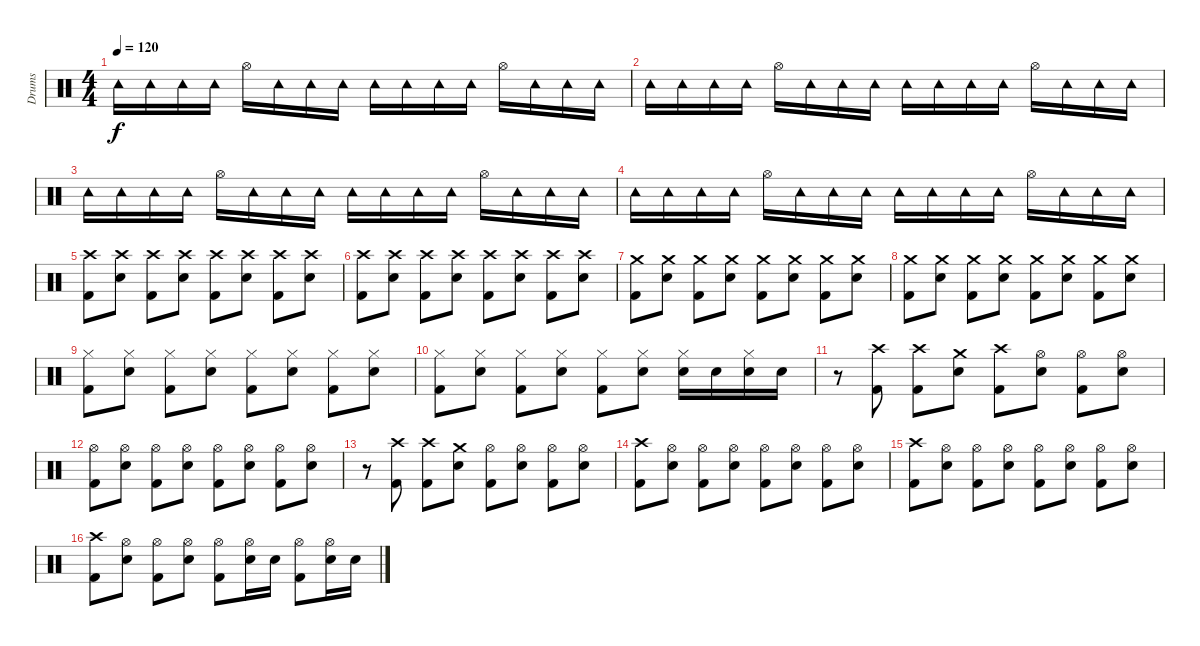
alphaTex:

\track ("Drums" "Drums") {instrument percussion}
\staff {score}
\articulation defaults
\ts (4 4)
\tempo 120
\clef neutral
\ks c "Tambourine (hit)".16{dy f} "Tambourine (hit)".16 "Tambourine (hit)".16 "Tambourine (hit)".16 "Hi-Hat (open)".16 "Tambourine (hit)".16 "Tambourine (hit)".16 "Tambourine (hit)".16 "Tambourine (hit)".16 "Tambourine (hit)".16 "Tambourine (hit)".16 "Tambourine (hit)".16 "Hi-Hat (open)".16 "Tambourine (hit)".16 "Tambourine (hit)".16 "Tambourine (hit)".16
|
"Tambourine (hit)".16 "Tambourine (hit)".16 "Tambourine (hit)".16 "Tambourine (hit)".16 "Hi-Hat (open)".16 "Tambourine (hit)".16 "Tambourine (hit)".16 "Tambourine (hit)".16 "Tambourine (hit)".16 "Tambourine (hit)".16 "Tambourine (hit)".16 "Tambourine (hit)".16 "Hi-Hat (open)".16 "Tambourine (hit)".16 "Tambourine (hit)".16 "Tambourine (hit)".16 |
"Tambourine (hit)".16{volume 2} "Tambourine (hit)".16 "Tambourine (hit)".16 "Tambourine (hit)".16 "Hi-Hat (open)".16 "Tambourine (hit)".16 "Tambourine (hit)".16 "Tambourine (hit)".16 "Tambourine (hit)".16 "Tambourine (hit)".16 "Tambourine (hit)".16 "Tambourine (hit)".16 "Hi-Hat (open)".16 "Tambourine (hit)".16 "Tambourine (hit)".16 "Tambourine (hit)".16 |
"Tambourine (hit)".16 "Tambourine (hit)".16 "Tambourine (hit)".16 "Tambourine (hit)".16 "Hi-Hat (open)".16 "Tambourine (hit)".16 "Tambourine (hit)".16 "Tambourine (hit)".16 "Tambourine (hit)".16 "Tambourine (hit)".16 "Tambourine (hit)".16 "Tambourine (hit)".16 "Hi-Hat (open)".16 "Tambourine (hit)".16 "Tambourine (hit)".16 "Tambourine (hit)".16 |
("Crash high (hit)" "Kick (hit) 2").8{volume 16} ("Crash high (hit)" "Snare (hit) 2").8 ("Crash high (hit)" "Kick (hit) 2").8 ("Crash high (hit)" "Snare (hit) 2").8 ("Crash high (hit)" "Kick (hit) 2").8 ("Crash high (hit)" "Snare (hit) 2").8 ("Crash high (hit)" "Kick (hit) 2").8 ("Crash high (hit)" "Snare (hit) 2").8 |
("Crash high (hit)" "Kick (hit) 2").8{volume 16} ("Crash high (hit)" "Snare (hit) 2").8 ("Crash high (hit)" "Kick (hit) 2").8 ("Crash high (hit)" "Snare (hit) 2").8 ("Crash high (hit)" "Kick (hit) 2").8 ("Crash high (hit)" "Snare (hit) 2").8 ("Crash high (hit)" "Kick (hit) 2").8 ("Crash high (hit)" "Snare (hit) 2").8 |
("Crash medium (hit)" "Kick (hit) 2").8{volume 16} ("Crash medium (hit)" "Snare (hit) 2").8 ("Crash medium (hit)" "Kick (hit) 2").8 ("Crash medium (hit)" "Snare (hit) 2").8 ("Crash medium (hit)" "Kick (hit) 2").8 ("Crash medium (hit)" "Snare (hit) 2").8 ("Crash medium (hit)" "Kick (hit) 2").8 ("Crash medium (hit)" "Snare (hit) 2").8 |
("Crash medium (hit)" "Kick (hit) 2").8{volume 16} ("Crash medium (hit)" "Snare (hit) 2").8 ("Crash medium (hit)" "Kick (hit) 2").8 ("Crash medium (hit)" "Snare (hit) 2").8 ("Crash medium (hit)" "Kick (hit) 2").8 ("Crash medium (hit)" "Snare (hit) 2").8 ("Crash medium (hit)" "Kick (hit) 2").8 ("Crash medium (hit)" "Snare (hit) 2").8 |
("Hi-Hat (closed)" "Kick (hit) 2").8{volume 16} ("Hi-Hat (closed)" "Snare (hit) 2").8 ("Hi-Hat (closed)" "Kick (hit) 2").8 ("Hi-Hat (closed)" "Snare (hit) 2").8 ("Hi-Hat (closed)" "Kick (hit) 2").8 ("Hi-Hat (closed)" "Snare (hit) 2").8 ("Hi-Hat (closed)" "Kick (hit) 2").8 ("Hi-Hat (closed)" "Snare (hit) 2").8 |
("Hi-Hat (closed)" "Kick (hit) 2").8{volume 16} ("Hi-Hat (closed)" "Snare (hit) 2").8 ("Hi-Hat (closed)" "Kick (hit) 2").8 ("Hi-Hat (closed)" "Snare (hit) 2").8 ("Hi-Hat (closed)" "Kick (hit) 2").8 ("Hi-Hat (closed)" "Snare (hit) 2").8 ("Hi-Hat (closed)" "Snare (hit) 2").16 "Snare (hit) 2".16 ("Hi-Hat (closed)" "Snare (hit) 2").16 "Snare (hit) 2".16 |
r.8 ("Crash high (hit)" "Kick (hit) 2").8 ("Crash high (hit)" "Kick (hit) 2").8 ("Crash medium (hit)" "Snare (hit) 2").8 ("Crash high (hit)" "Kick (hit) 2").8 ("Hi-Hat (open)" "Snare (hit) 2").8 ("Hi-Hat (open)" "Kick (hit) 2").8 ("Hi-Hat (open)" "Snare (hit) 2").8 |
("Hi-Hat (open)" "Kick (hit) 2").8{volume 16} ("Hi-Hat (open)" "Snare (hit) 2").8 ("Hi-Hat (open)" "Kick (hit) 2").8 ("Hi-Hat (open)" "Snare (hit) 2").8 ("Hi-Hat (open)" "Kick (hit) 2").8 ("Hi-Hat (open)" "Snare (hit) 2").8 ("Hi-Hat (open)" "Kick (hit) 2").8 ("Hi-Hat (open)" "Snare (hit) 2").8 |
r.8 ("Crash high (hit)" "Kick (hit) 2").8 ("Crash high (hit)" "Kick (hit) 2").8 ("Crash medium (hit)" "Snare (hit) 2").8 ("Hi-Hat (open)" "Kick (hit) 2").8 ("Hi-Hat (open)" "Snare (hit) 2").8 ("Hi-Hat (open)" "Kick (hit) 2").8 ("Hi-Hat (open)" "Snare (hit) 2").8 |
("Crash high (hit)" "Kick (hit) 2").8{volume 16} ("Hi-Hat (open)" "Snare (hit) 2").8 ("Hi-Hat (open)" "Kick (hit) 2").8 ("Hi-Hat (open)" "Snare (hit) 2").8 ("Hi-Hat (open)" "Kick (hit) 2").8 ("Hi-Hat (open)" "Snare (hit) 2").8 ("Hi-Hat (open)" "Kick (hit) 2").8 ("Hi-Hat (open)" "Snare (hit) 2").8 |
("Crash high (hit)" "Kick (hit) 2").8{volume 16} ("Hi-Hat (open)" "Snare (hit) 2").8 ("Hi-Hat (open)" "Kick (hit) 2").8 ("Hi-Hat (open)" "Snare (hit) 2").8 ("Hi-Hat (open)" "Kick (hit) 2").8 ("Hi-Hat (open)" "Snare (hit) 2").8 ("Hi-Hat (open)" "Kick (hit) 2").8 ("Hi-Hat (open)" "Snare (hit) 2").8 |
("Crash high (hit)" "Kick (hit) 2").8{volume 16} ("Hi-Hat (open)" "Snare (hit) 2").8 ("Hi-Hat (open)" "Kick (hit) 2").8 ("Hi-Hat (open)" "Snare (hit) 2").8 ("Hi-Hat (open)" "Kick (hit) 2").8 ("Hi-Hat (open)" "Snare (hit) 2").16 "Snare (hit) 2".16 ("Hi-Hat (open)" "Kick (hit) 2").8 ("Hi-Hat (open)" "Snare (hit) 2").16 "Snare (hit) 2".16
